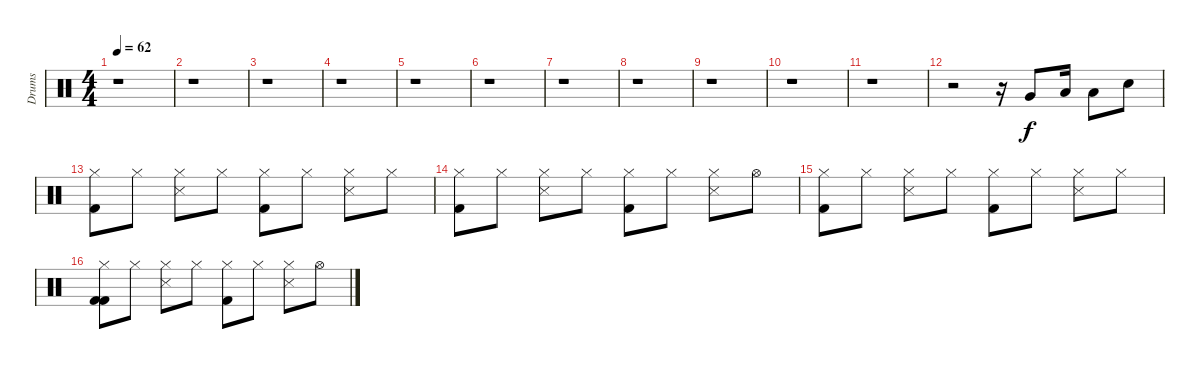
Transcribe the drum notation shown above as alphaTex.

\track ("Drums" "Drums") {instrument percussion}
\staff {score}
\articulation defaults
\ts (4 4)
\tempo 62
\clef neutral
\ks c
r.1{dy f} |
r.1 |
r.1 |
r.1 |
r.1 |
r.1 |
r.1 |
r.1 |
r.1 |
r.1 |
r.1 |
r.2 r.16 "Very Low Tom (hit)".8 "Low Floor Tom (hit)".16 "Low Floor Tom (hit)".8 "Snare (hit) 2".8 |
("Kick (hit) 2" "Hi-Hat (closed)").8 "Hi-Hat (closed)".8 ("Snare (side stick) 3" "Hi-Hat (closed)").8 "Hi-Hat (closed)".8 ("Kick (hit) 2" "Hi-Hat (closed)").8 "Hi-Hat (closed)".8 ("Snare (side stick) 3" "Hi-Hat (closed)").8 "Hi-Hat (closed)".8 |
("Kick (hit) 2" "Hi-Hat (closed)").8 "Hi-Hat (closed)".8 ("Snare (side stick) 3" "Hi-Hat (closed)").8 "Hi-Hat (closed)".8 ("Kick (hit) 2" "Hi-Hat (closed)").8 "Hi-Hat (closed)".8 ("Snare (side stick) 3" "Hi-Hat (closed)").8 "Hi-Hat (open)".8 |
("Kick (hit) 2" "Hi-Hat (closed)").8 "Hi-Hat (closed)".8 ("Snare (side stick) 3" "Hi-Hat (closed)").8 "Hi-Hat (closed)".8 ("Kick (hit) 2" "Hi-Hat (closed)").8 "Hi-Hat (closed)".8 ("Snare (side stick) 3" "Hi-Hat (closed)").8 "Hi-Hat (closed)".8 |
("Kick (hit) 2" "Hi-Hat (closed)" "Kick (hit) 2").8 "Hi-Hat (closed)".8 ("Snare (side stick) 3" "Hi-Hat (closed)").8 "Hi-Hat (closed)".8 ("Kick (hit) 2" "Hi-Hat (closed)").8 "Hi-Hat (closed)".8 ("Snare (side stick) 3" "Hi-Hat (closed)").8 "Hi-Hat (open)".8
